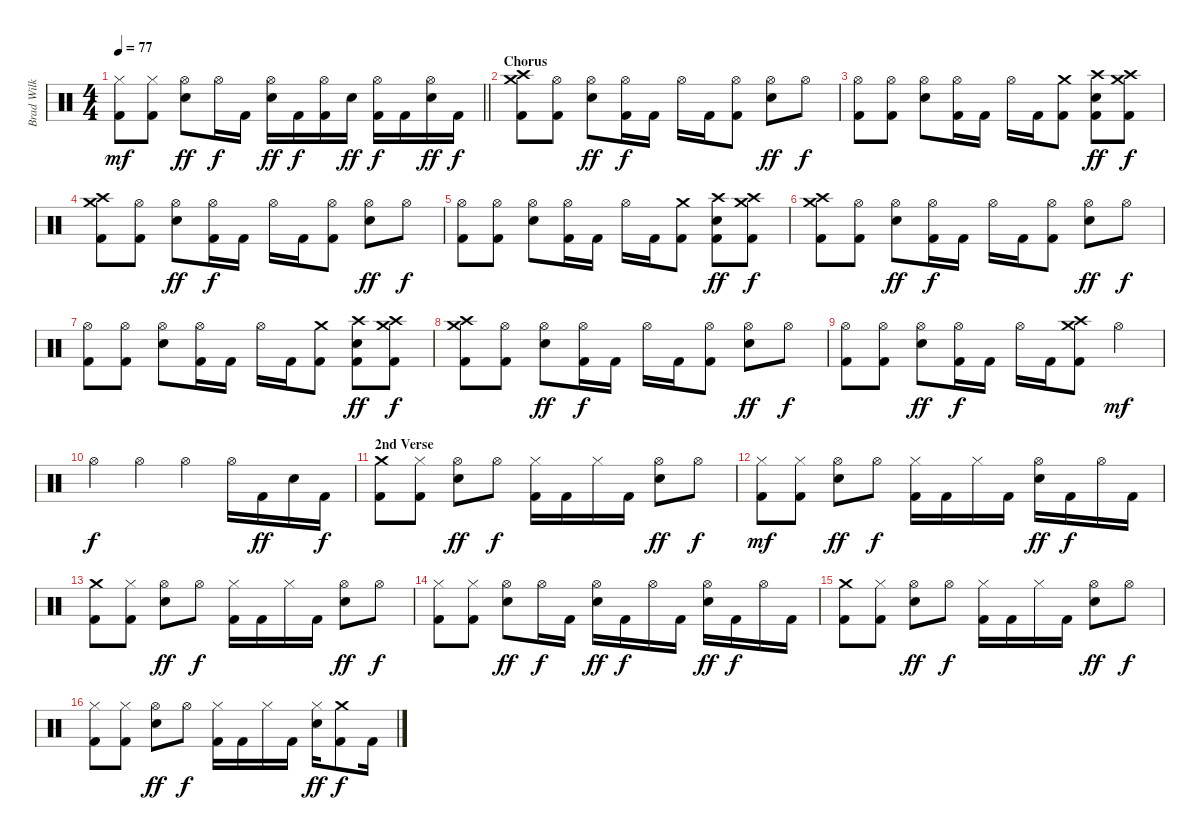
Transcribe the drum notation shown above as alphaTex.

\track ("Brad Wilk / Drums" "Brad Wilk ") {instrument percussion}
\staff {score}
\articulation defaults
\ts (4 4)
\tempo 77
\clef neutral
\barLineRight lightlight
\ks c
("Hi-Hat (closed)" "Kick (hit) 2").8{dy mf} ("Hi-Hat (closed)" "Kick (hit) 2").8 ("Hi-Hat (open)" "Snare (hit) 2").8{dy ff} "Hi-Hat (open)".16{dy f} "Kick (hit) 2".16 ("Hi-Hat (open)" "Snare (hit) 2").16{dy ff} "Kick (hit) 2".16{dy f} ("Hi-Hat (open)" "Kick (hit) 2").16 "Snare (hit) 2".16{dy ff} ("Hi-Hat (open)" "Kick (hit) 2").16{dy f} "Kick (hit) 2".16 ("Hi-Hat (open)" "Snare (hit) 2").16{dy ff} "Kick (hit) 2".16{dy f} |
\section ("" "Chorus")
("Crash medium (hit)" "Crash high (hit)" "Kick (hit) 2").8 ("Hi-Hat (open)" "Kick (hit) 2").8 ("Hi-Hat (open)" "Snare (hit) 2").8{dy ff} ("Hi-Hat (open)" "Kick (hit) 2").16{dy f} "Kick (hit) 2".16 "Hi-Hat (open)".16 "Kick (hit) 2".16 ("Hi-Hat (open)" "Kick (hit) 2").8 ("Hi-Hat (open)" "Snare (hit) 2").8{dy ff} "Hi-Hat (open)".8{dy f} |
("Hi-Hat (open)" "Kick (hit) 2").8 ("Hi-Hat (open)" "Kick (hit) 2").8 ("Hi-Hat (open)" "Snare (hit) 2").8 ("Hi-Hat (open)" "Kick (hit) 2").16 "Kick (hit) 2".16 "Hi-Hat (open)".16 "Kick (hit) 2".16 ("Crash medium (hit)" "Kick (hit) 2").8 ("Crash high (hit)" "Snare (hit) 2" "Kick (hit) 2").8{dy ff} ("Crash medium (hit)" "Crash high (hit)" "Kick (hit) 2").8{dy f} |
("Crash medium (hit)" "Crash high (hit)" "Kick (hit) 2").8 ("Hi-Hat (open)" "Kick (hit) 2").8 ("Hi-Hat (open)" "Snare (hit) 2").8{dy ff} ("Hi-Hat (open)" "Kick (hit) 2").16{dy f} "Kick (hit) 2".16 "Hi-Hat (open)".16 "Kick (hit) 2".16 ("Hi-Hat (open)" "Kick (hit) 2").8 ("Hi-Hat (open)" "Snare (hit) 2").8{dy ff} "Hi-Hat (open)".8{dy f} |
("Hi-Hat (open)" "Kick (hit) 2").8 ("Hi-Hat (open)" "Kick (hit) 2").8 ("Hi-Hat (open)" "Snare (hit) 2").8 ("Hi-Hat (open)" "Kick (hit) 2").16 "Kick (hit) 2".16 "Hi-Hat (open)".16 "Kick (hit) 2".16 ("Crash medium (hit)" "Kick (hit) 2").8 ("Crash high (hit)" "Snare (hit) 2" "Kick (hit) 2").8{dy ff} ("Crash medium (hit)" "Crash high (hit)" "Kick (hit) 2").8{dy f} |
("Crash medium (hit)" "Crash high (hit)" "Kick (hit) 2").8 ("Hi-Hat (open)" "Kick (hit) 2").8 ("Hi-Hat (open)" "Snare (hit) 2").8{dy ff} ("Hi-Hat (open)" "Kick (hit) 2").16{dy f} "Kick (hit) 2".16 "Hi-Hat (open)".16 "Kick (hit) 2".16 ("Hi-Hat (open)" "Kick (hit) 2").8 ("Hi-Hat (open)" "Snare (hit) 2").8{dy ff} "Hi-Hat (open)".8{dy f} |
("Hi-Hat (open)" "Kick (hit) 2").8 ("Hi-Hat (open)" "Kick (hit) 2").8 ("Hi-Hat (open)" "Snare (hit) 2").8 ("Hi-Hat (open)" "Kick (hit) 2").16 "Kick (hit) 2".16 "Hi-Hat (open)".16 "Kick (hit) 2".16 ("Crash medium (hit)" "Kick (hit) 2").8 ("Crash high (hit)" "Snare (hit) 2" "Kick (hit) 2").8{dy ff} ("Crash medium (hit)" "Crash high (hit)" "Kick (hit) 2").8{dy f} |
("Crash medium (hit)" "Crash high (hit)" "Kick (hit) 2").8 ("Hi-Hat (open)" "Kick (hit) 2").8 ("Hi-Hat (open)" "Snare (hit) 2").8{dy ff} ("Hi-Hat (open)" "Kick (hit) 2").16{dy f} "Kick (hit) 2".16 "Hi-Hat (open)".16 "Kick (hit) 2".16 ("Hi-Hat (open)" "Kick (hit) 2").8 ("Hi-Hat (open)" "Snare (hit) 2").8{dy ff} "Hi-Hat (open)".8{dy f} |
("Hi-Hat (open)" "Kick (hit) 2").8 ("Hi-Hat (open)" "Kick (hit) 2").8 ("Hi-Hat (open)" "Snare (hit) 2").8{dy ff} ("Hi-Hat (open)" "Kick (hit) 2").16{dy f} "Kick (hit) 2".16 "Hi-Hat (open)".16 "Kick (hit) 2".16 ("Crash medium (hit)" "Crash high (hit)" "Kick (hit) 2").8 "Hi-Hat (open)".4{dy mf} |
"Hi-Hat (open)".4{dy f} "Hi-Hat (open)".4 "Hi-Hat (open)".4 "Hi-Hat (open)".16 "Kick (hit) 2".16{dy ff} "Snare (hit) 2".16 "Kick (hit) 2".16{dy f} |
\section ("" "2nd Verse")
("Crash medium (hit)" "Kick (hit) 2").8 ("Hi-Hat (closed)" "Kick (hit) 2").8 ("Hi-Hat (open)" "Snare (hit) 2").8{dy ff} "Hi-Hat (open)".8{dy f} ("Hi-Hat (closed)" "Kick (hit) 2").16 "Kick (hit) 2".16 "Hi-Hat (closed)".16 "Kick (hit) 2".16 ("Hi-Hat (open)" "Snare (hit) 2").8{dy ff} "Hi-Hat (open)".8{dy f} |
("Hi-Hat (closed)" "Kick (hit) 2").8{dy mf} ("Hi-Hat (closed)" "Kick (hit) 2").8 ("Hi-Hat (open)" "Snare (hit) 2").8{dy ff} "Hi-Hat (open)".8{dy f} ("Hi-Hat (closed)" "Kick (hit) 2").16 "Kick (hit) 2".16 "Hi-Hat (closed)".16 "Kick (hit) 2".16 ("Hi-Hat (open)" "Snare (hit) 2").16{dy ff} "Kick (hit) 2".16{dy f} "Hi-Hat (open)".16 "Kick (hit) 2".16 |
("Crash medium (hit)" "Kick (hit) 2").8 ("Hi-Hat (closed)" "Kick (hit) 2").8 ("Hi-Hat (open)" "Snare (hit) 2").8{dy ff} "Hi-Hat (open)".8{dy f} ("Hi-Hat (closed)" "Kick (hit) 2").16 "Kick (hit) 2".16 "Hi-Hat (closed)".16 "Kick (hit) 2".16 ("Hi-Hat (open)" "Snare (hit) 2").8{dy ff} "Hi-Hat (open)".8{dy f} |
("Hi-Hat (closed)" "Kick (hit) 2").8 ("Hi-Hat (closed)" "Kick (hit) 2").8 ("Hi-Hat (open)" "Snare (hit) 2").8{dy ff} "Hi-Hat (open)".16{dy f} "Kick (hit) 2".16 ("Hi-Hat (open)" "Snare (hit) 2").16{dy ff} "Kick (hit) 2".16{dy f} "Hi-Hat (open)".16 "Kick (hit) 2".16 ("Hi-Hat (open)" "Snare (hit) 2").16{dy ff} "Kick (hit) 2".16{dy f} "Hi-Hat (open)".16 "Kick (hit) 2".16 |
("Crash medium (hit)" "Kick (hit) 2").8 ("Hi-Hat (closed)" "Kick (hit) 2").8 ("Hi-Hat (open)" "Snare (hit) 2").8{dy ff} "Hi-Hat (open)".8{dy f} ("Hi-Hat (closed)" "Kick (hit) 2").16 "Kick (hit) 2".16 "Hi-Hat (closed)".16 "Kick (hit) 2".16 ("Hi-Hat (open)" "Snare (hit) 2").8{dy ff} "Hi-Hat (open)".8{dy f} |
("Hi-Hat (closed)" "Kick (hit) 2").8 ("Hi-Hat (closed)" "Kick (hit) 2").8 ("Hi-Hat (open)" "Snare (hit) 2").8{dy ff} "Hi-Hat (open)".8{dy f} ("Hi-Hat (closed)" "Kick (hit) 2").16 "Kick (hit) 2".16 "Hi-Hat (closed)".16 "Kick (hit) 2".16 ("Hi-Hat (closed)" "Snare (hit) 2").16{dy ff} ("Crash medium (hit)" "Kick (hit) 2").8{dy f} "Kick (hit) 2".16
